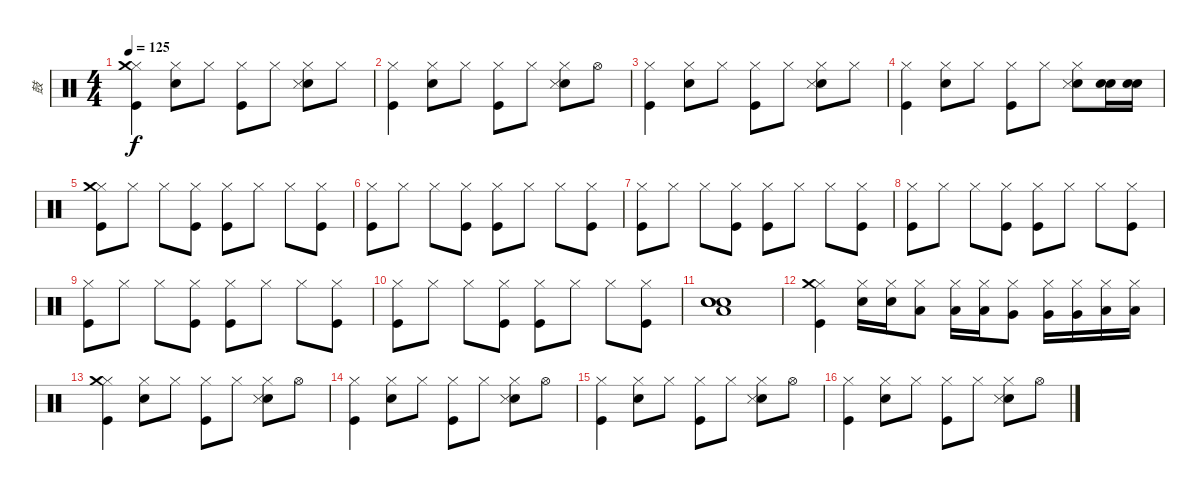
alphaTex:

\track ("鼓" "鼓") {instrument percussion}
\staff {score}
\articulation defaults
\ts (4 4)
\tempo 125
\clef neutral
\ks c
("Kick (hit)" "Hi-Hat (closed)" "Crash medium (hit)").4{dy f} ("Hi-Hat (closed)" "Electric Snare (hit)").8 "Hi-Hat (closed)".8 ("Kick (hit)" "Hi-Hat (closed)").8 "Hi-Hat (closed)".8 ("Hi-Hat (closed)" "Electric Snare (hit)" "Snare (side stick) 3").8 "Hi-Hat (closed)".8 |
("Kick (hit)" "Hi-Hat (closed)").4 ("Hi-Hat (closed)" "Electric Snare (hit)").8 "Hi-Hat (closed)".8 ("Kick (hit)" "Hi-Hat (closed)").8 "Hi-Hat (closed)".8 ("Hi-Hat (closed)" "Electric Snare (hit)" "Snare (side stick) 3").8 "Hi-Hat (open)".8 |
("Kick (hit)" "Hi-Hat (closed)").4 ("Hi-Hat (closed)" "Electric Snare (hit)").8 "Hi-Hat (closed)".8 ("Kick (hit)" "Hi-Hat (closed)").8 "Hi-Hat (closed)".8 ("Hi-Hat (closed)" "Electric Snare (hit)" "Snare (side stick) 3").8 "Hi-Hat (closed)".8 |
("Kick (hit)" "Hi-Hat (closed)").4 ("Hi-Hat (closed)" "Electric Snare (hit)").8 "Hi-Hat (closed)".8 ("Kick (hit)" "Hi-Hat (closed)").8 "Hi-Hat (closed)".8 ("Hi-Hat (closed)" "Electric Snare (hit)" "Snare (side stick) 3").8 ("Electric Snare (hit)" "Snare (hit) 2").16 ("Electric Snare (hit)" "Snare (hit) 2").16 |
("Kick (hit)" "Hi-Hat (closed)" "Crash medium (hit)").8 "Hi-Hat (closed)".8 "Hi-Hat (closed)".8 ("Kick (hit)" "Hi-Hat (closed)").8 ("Kick (hit)" "Hi-Hat (closed)").8 "Hi-Hat (closed)".8 "Hi-Hat (closed)".8 ("Kick (hit)" "Hi-Hat (closed)").8 |
("Kick (hit)" "Hi-Hat (closed)").8 "Hi-Hat (closed)".8 "Hi-Hat (closed)".8 ("Kick (hit)" "Hi-Hat (closed)").8 ("Kick (hit)" "Hi-Hat (closed)").8 "Hi-Hat (closed)".8 "Hi-Hat (closed)".8 ("Kick (hit)" "Hi-Hat (closed)").8 |
("Kick (hit)" "Hi-Hat (closed)").8 "Hi-Hat (closed)".8 "Hi-Hat (closed)".8 ("Kick (hit)" "Hi-Hat (closed)").8 ("Kick (hit)" "Hi-Hat (closed)").8 "Hi-Hat (closed)".8 "Hi-Hat (closed)".8 ("Kick (hit)" "Hi-Hat (closed)").8 |
("Kick (hit)" "Hi-Hat (closed)").8 "Hi-Hat (closed)".8 "Hi-Hat (closed)".8 ("Kick (hit)" "Hi-Hat (closed)").8 ("Kick (hit)" "Hi-Hat (closed)").8 "Hi-Hat (closed)".8 "Hi-Hat (closed)".8 ("Kick (hit)" "Hi-Hat (closed)").8 |
("Kick (hit)" "Hi-Hat (closed)").8 "Hi-Hat (closed)".8 "Hi-Hat (closed)".8 ("Kick (hit)" "Hi-Hat (closed)").8 ("Kick (hit)" "Hi-Hat (closed)").8 "Hi-Hat (closed)".8 "Hi-Hat (closed)".8 ("Kick (hit)" "Hi-Hat (closed)").8 |
("Kick (hit)" "Hi-Hat (closed)").8 "Hi-Hat (closed)".8 "Hi-Hat (closed)".8 ("Kick (hit)" "Hi-Hat (closed)").8 ("Kick (hit)" "Hi-Hat (closed)").8 "Hi-Hat (closed)".8 "Hi-Hat (closed)".8 ("Kick (hit)" "Hi-Hat (closed)").8 |
("Low Floor Tom (hit)" "Electric Snare (hit)" "Electric Snare (hit)" "Snare (hit) 2").1 |
("Kick (hit)" "Hi-Hat (closed)" "Crash medium (hit)").4 ("Hi-Hat (closed)" "Electric Snare (hit)").16 ("Hi-Hat (closed)" "Electric Snare (hit)").16 ("Hi-Hat (closed)" "Low Tom (hit)").8 ("Hi-Hat (closed)" "Low Tom (hit)").16 ("Hi-Hat (closed)" "Low Tom (hit)").16 ("Hi-Hat (closed)" "Very Low Tom (hit)").8 ("Hi-Hat (closed)" "Very Low Tom (hit)").16 ("Hi-Hat (closed)" "Very Low Tom (hit)").16 ("Hi-Hat (closed)" "Low Floor Tom (hit)").16 ("Hi-Hat (closed)" "Low Floor Tom (hit)").16 |
("Kick (hit)" "Hi-Hat (closed)" "Crash medium (hit)").4 ("Hi-Hat (closed)" "Electric Snare (hit)").8 "Hi-Hat (closed)".8 ("Kick (hit)" "Hi-Hat (closed)").8 "Hi-Hat (closed)".8 ("Hi-Hat (closed)" "Electric Snare (hit)" "Snare (side stick) 3").8 "Hi-Hat (open)".8 |
("Kick (hit)" "Hi-Hat (closed)").4 ("Hi-Hat (closed)" "Electric Snare (hit)").8 "Hi-Hat (closed)".8 ("Kick (hit)" "Hi-Hat (closed)").8 "Hi-Hat (closed)".8 ("Hi-Hat (closed)" "Electric Snare (hit)" "Snare (side stick) 3").8 "Hi-Hat (open)".8 |
("Kick (hit)" "Hi-Hat (closed)").4 ("Hi-Hat (closed)" "Electric Snare (hit)").8 "Hi-Hat (closed)".8 ("Kick (hit)" "Hi-Hat (closed)").8 "Hi-Hat (closed)".8 ("Hi-Hat (closed)" "Electric Snare (hit)" "Snare (side stick) 3").8 "Hi-Hat (open)".8 |
("Kick (hit)" "Hi-Hat (closed)").4 ("Hi-Hat (closed)" "Electric Snare (hit)").8 "Hi-Hat (closed)".8 ("Kick (hit)" "Hi-Hat (closed)").8 "Hi-Hat (closed)".8 ("Hi-Hat (closed)" "Electric Snare (hit)" "Snare (side stick) 3").8 "Hi-Hat (open)".8
